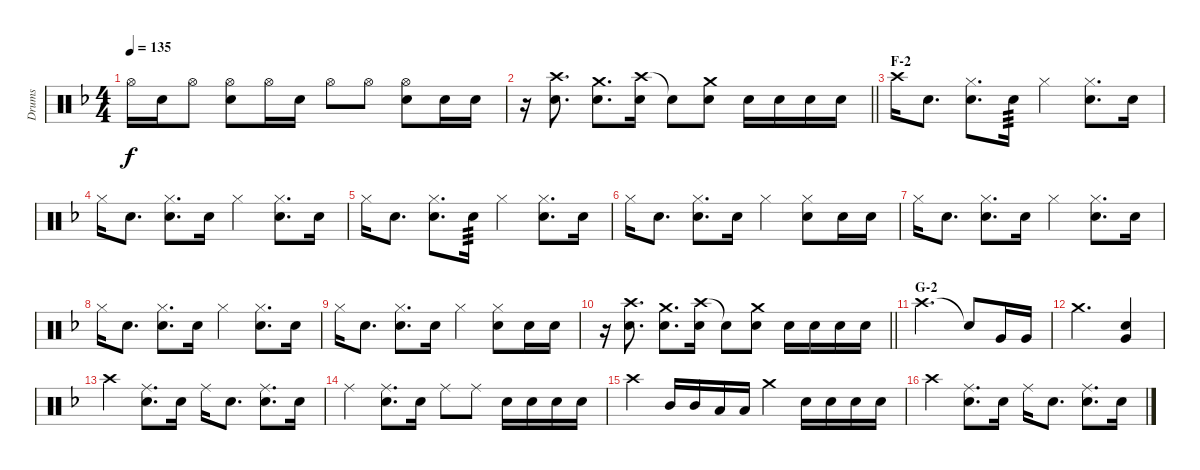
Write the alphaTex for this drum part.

\track ("Drums" "Drums") {instrument percussion}
\staff {score}
\articulation defaults
\ts (4 4)
\tempo 135
\clef neutral
\ks f "Hi-Hat (open)".16{dy f} "Snare (hit) 2".16 "Hi-Hat (open)".8
("Hi-Hat (open)" "Snare (hit) 2").8 "Hi-Hat (open)".16 "Snare (hit) 2".16 "Hi-Hat (open)".8 "Hi-Hat (open)".8 ("Hi-Hat (open)" "Snare (hit) 2").8 "Snare (hit) 2".16 "Snare (hit) 2".16 |
\barLineRight lightlight
r.16 ("Crash high (hit)" "Snare (hit) 2").8{d} ("Crash medium (hit)" "Snare (hit) 2").8{d} ("Crash high (hit)" "Snare (hit) 2").16 "Snare (hit)"{t}.8 ("Crash medium (hit)" "Snare (hit) 2").8 "Snare (hit) 2".16 "Snare (hit) 2".16 "Snare (hit) 2".16 "Snare (hit) 2".16 |
\section ("" "F-2")
"Crash high (hit)".16 "Snare (hit) 2".8{d} ("Hi-Hat (closed)" "Snare (hit) 2").8{d} "Snare (hit) 2".16{tp 3} "Hi-Hat (closed)".4 ("Hi-Hat (closed)" "Snare (hit) 2").8{d} "Snare (hit) 2".16 |
"Hi-Hat (closed)".16 "Snare (hit) 2".8{d} ("Hi-Hat (closed)" "Snare (hit) 2").8{d} "Snare (hit) 2".16 "Hi-Hat (closed)".4 ("Hi-Hat (closed)" "Snare (hit) 2").8{d} "Snare (hit) 2".16 |
"Hi-Hat (closed)".16 "Snare (hit) 2".8{d} ("Hi-Hat (closed)" "Snare (hit) 2").8{d} "Snare (hit) 2".16{tp 3} "Hi-Hat (closed)".4 ("Hi-Hat (closed)" "Snare (hit) 2").8{d} "Snare (hit) 2".16 |
"Hi-Hat (closed)".16 "Snare (hit) 2".8{d} ("Hi-Hat (closed)" "Snare (hit) 2").8{d} "Snare (hit) 2".16 "Hi-Hat (closed)".4 ("Hi-Hat (closed)" "Snare (hit) 2").8 "Snare (hit) 2".16 "Snare (hit) 2".16 |
"Hi-Hat (closed)".16 "Snare (hit) 2".8{d} ("Hi-Hat (closed)" "Snare (hit) 2").8{d} "Snare (hit) 2".16 "Hi-Hat (closed)".4 ("Hi-Hat (closed)" "Snare (hit) 2").8{d} "Snare (hit) 2".16 |
"Hi-Hat (closed)".16 "Snare (hit) 2".8{d} ("Hi-Hat (closed)" "Snare (hit) 2").8{d} "Snare (hit) 2".16 "Hi-Hat (closed)".4 ("Hi-Hat (closed)" "Snare (hit) 2").8{d} "Snare (hit) 2".16 |
"Hi-Hat (closed)".16 "Snare (hit) 2".8{d} ("Hi-Hat (closed)" "Snare (hit) 2").8{d} "Snare (hit) 2".16 "Hi-Hat (closed)".4 ("Hi-Hat (closed)" "Snare (hit) 2").8 "Snare (hit) 2".16 "Snare (hit) 2".16 |
\barLineRight lightlight
r.16 ("Crash high (hit)" "Snare (hit) 2").8{d} ("Crash medium (hit)" "Snare (hit) 2").8{d} ("Crash high (hit)" "Snare (hit) 2").16 "Snare (hit)"{t}.8 ("Crash medium (hit)" "Snare (hit) 2").8 "Snare (hit) 2".16 "Snare (hit) 2".16 "Snare (hit) 2".16 "Snare (hit) 2".16 |
\section ("" "G-2")
"Crash high (hit)".2{d} "Snare (hit)"{t}.8 "Very Low Tom (hit)".16 "Very Low Tom (hit)".16 |
"Crash medium (hit)".2{d} ("Snare (hit) 2" "Very Low Tom (hit)").4 |
"Crash high (hit)".4 ("Ride (middle)" "Snare (hit) 2").8{d} "Snare (hit) 2".16 "Ride (middle)".16 "Snare (hit) 2".8{d} ("Ride (middle)" "Snare (hit) 2").8{d} "Snare (hit) 2".16 |
"Ride (middle)".4 ("Ride (middle)" "Snare (hit) 2").8{d} "Snare (hit) 2".16 "Ride (middle)".8 "Ride (middle)".8 "Snare (hit) 2".16 "Snare (hit) 2".16 "Snare (hit) 2".16 "Snare (hit) 2".16 |
"Crash high (hit)".4 "Mid Tom (hit)".16 "Mid Tom (hit)".16 "Low Tom (hit)".16 "Low Tom (hit)".16 "Crash medium (hit)".4 "Snare (hit) 2".16 "Snare (hit) 2".16 "Snare (hit) 2".16 "Snare (hit) 2".16 |
"Crash high (hit)".4 ("Ride (middle)" "Snare (hit) 2").8{d} "Snare (hit) 2".16 "Ride (middle)".16 "Snare (hit) 2".8{d} ("Ride (middle)" "Snare (hit) 2").8{d} "Snare (hit) 2".16
